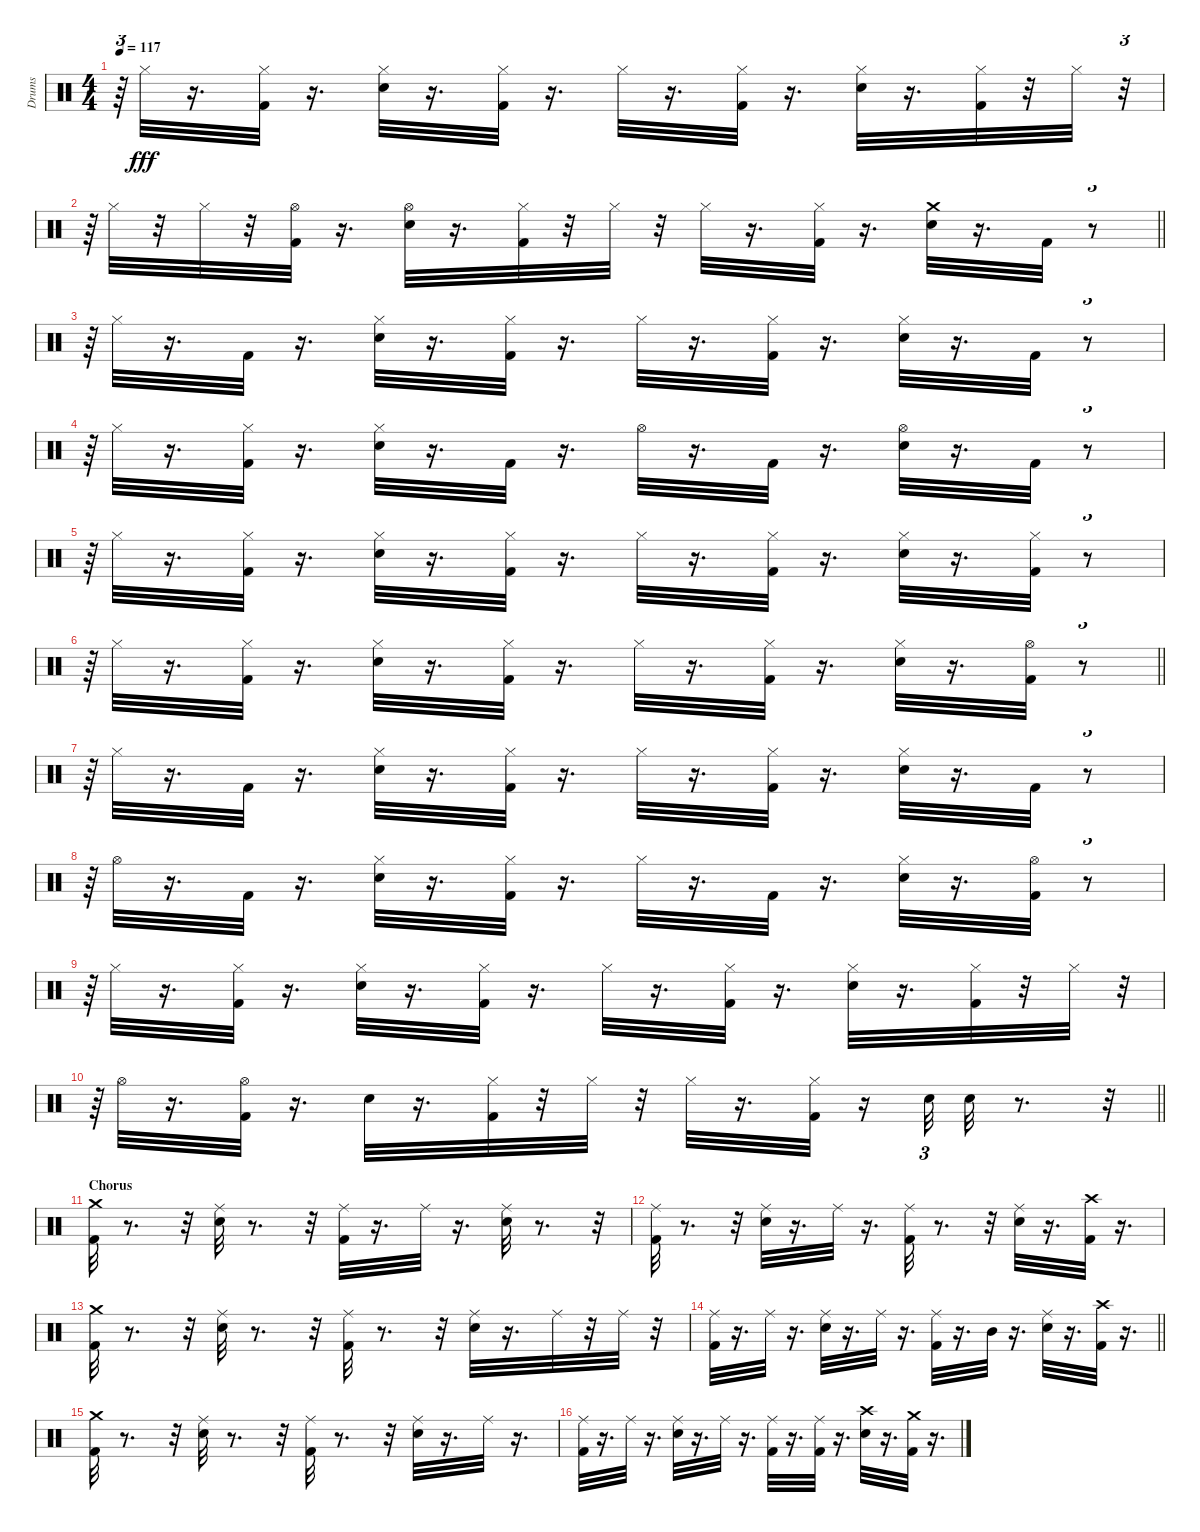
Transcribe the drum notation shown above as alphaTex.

\track ("Drums" "Drums") {instrument percussion}
\staff {score}
\articulation defaults
\ts (4 4)
\tempo 117
\clef neutral
\ks c
r.64{tu (3 2) dy fff} "Hi-Hat (closed)".32 r.16{d} ("Hi-Hat (closed)" "Kick (hit) 2").32 r.16{d} ("Electric Snare (hit)" "Hi-Hat (closed)").32 r.16{d} ("Kick (hit) 2" "Hi-Hat (closed)").32 r.16{d} "Hi-Hat (closed)".32 r.16{d} ("Kick (hit) 2" "Hi-Hat (closed)").32 r.16{d} ("Electric Snare (hit)" "Hi-Hat (closed)").32 r.16{d} ("Kick (hit) 2" "Hi-Hat (closed)").32 r.32 "Hi-Hat (closed)".32 r.32{tu (3 2)} |
\barLineRight lightlight
r.64{tu (3 2)} "Hi-Hat (closed)".32 r.32 "Hi-Hat (closed)".32 r.32 ("Kick (hit) 2" "Hi-Hat (open)").32 r.16{d} ("Electric Snare (hit)" "Hi-Hat (open)").32 r.16{d} ("Kick (hit) 2" "Hi-Hat (closed)").32 r.32 "Hi-Hat (closed)".32 r.32 "Hi-Hat (closed)".32 r.16{d} ("Hi-Hat (closed)" "Kick (hit) 2").32 r.16{d} ("Electric Snare (hit)" "Crash medium (hit)").32 r.16{d} "Kick (hit) 2".32 r.8{tu (3 2)} |
r.64{tu (3 2)} "Hi-Hat (closed)".32 r.16{d} "Kick (hit) 2".32 r.16{d} ("Electric Snare (hit)" "Hi-Hat (closed)").32 r.16{d} ("Hi-Hat (closed)" "Kick (hit) 2").32 r.16{d} "Hi-Hat (closed)".32 r.16{d} ("Kick (hit) 2" "Hi-Hat (closed)").32 r.16{d} ("Electric Snare (hit)" "Hi-Hat (closed)").32 r.16{d} "Kick (hit) 2".32 r.8{tu (3 2)} |
r.64{tu (3 2)} "Hi-Hat (closed)".32 r.16{d} ("Kick (hit) 2" "Hi-Hat (closed)").32 r.16{d} ("Electric Snare (hit)" "Hi-Hat (closed)").32 r.16{d} "Kick (hit) 2".32 r.16{d} "Hi-Hat (open)".32 r.16{d} "Kick (hit) 2".32 r.16{d} ("Electric Snare (hit)" "Hi-Hat (open)").32 r.16{d} "Kick (hit) 2".32 r.8{tu (3 2)} |
r.64{tu (3 2)} "Hi-Hat (closed)".32 r.16{d} ("Kick (hit) 2" "Hi-Hat (closed)").32 r.16{d} ("Electric Snare (hit)" "Hi-Hat (closed)").32 r.16{d} ("Kick (hit) 2" "Hi-Hat (closed)").32 r.16{d} "Hi-Hat (closed)".32 r.16{d} ("Hi-Hat (closed)" "Kick (hit) 2").32 r.16{d} ("Electric Snare (hit)" "Hi-Hat (closed)").32 r.16{d} ("Hi-Hat (closed)" "Kick (hit) 2").32 r.8{tu (3 2)} |
\barLineRight lightlight
r.64{tu (3 2)} "Hi-Hat (closed)".32 r.16{d} ("Kick (hit) 2" "Hi-Hat (closed)").32 r.16{d} ("Electric Snare (hit)" "Hi-Hat (closed)").32 r.16{d} ("Kick (hit) 2" "Hi-Hat (closed)").32 r.16{d} "Hi-Hat (closed)".32 r.16{d} ("Kick (hit) 2" "Hi-Hat (closed)").32 r.16{d} ("Electric Snare (hit)" "Hi-Hat (closed)").32 r.16{d} ("Kick (hit) 2" "Hi-Hat (open)").32 r.8{tu (3 2)} |
r.64{tu (3 2)} "Hi-Hat (closed)".32 r.16{d} "Kick (hit) 2".32 r.16{d} ("Electric Snare (hit)" "Hi-Hat (closed)").32 r.16{d} ("Kick (hit) 2" "Hi-Hat (closed)").32 r.16{d} "Hi-Hat (closed)".32 r.16{d} ("Kick (hit) 2" "Hi-Hat (closed)").32 r.16{d} ("Electric Snare (hit)" "Hi-Hat (closed)").32 r.16{d} "Kick (hit) 2".32 r.8{tu (3 2)} |
r.64{tu (3 2)} "Hi-Hat (open)".32 r.16{d} "Kick (hit) 2".32 r.16{d} ("Electric Snare (hit)" "Hi-Hat (closed)").32 r.16{d} ("Kick (hit) 2" "Hi-Hat (closed)").32 r.16{d} "Hi-Hat (closed)".32 r.16{d} "Kick (hit) 2".32 r.16{d} ("Electric Snare (hit)" "Hi-Hat (closed)").32 r.16{d} ("Kick (hit) 2" "Hi-Hat (open)").32 r.8{tu (3 2)} |
r.64{tu (3 2)} "Hi-Hat (closed)".32 r.16{d} ("Hi-Hat (closed)" "Kick (hit) 2").32 r.16{d} ("Electric Snare (hit)" "Hi-Hat (closed)").32 r.16{d} ("Kick (hit) 2" "Hi-Hat (closed)").32 r.16{d} "Hi-Hat (closed)".32 r.16{d} ("Kick (hit) 2" "Hi-Hat (closed)").32 r.16{d} ("Electric Snare (hit)" "Hi-Hat (closed)").32 r.16{d} ("Kick (hit) 2" "Hi-Hat (closed)").32 r.32 "Hi-Hat (closed)".32 r.32{tu (3 2)} |
\barLineRight lightlight
r.64{tu (3 2)} "Hi-Hat (open)".32 r.16{d} ("Hi-Hat (open)" "Kick (hit) 2").32 r.16{d} "Electric Snare (hit)".32 r.16{d} ("Kick (hit) 2" "Hi-Hat (closed)").32 r.32 "Hi-Hat (closed)".32 r.32 "Hi-Hat (closed)".32 r.16{d} ("Kick (hit) 2" "Hi-Hat (closed)").32 r.16 "Electric Snare (hit)".32{tu (3 2)} "Electric Snare (hit)".32 r.8{d} r.32 |
\section ("" "Chorus")
("Kick (hit) 2" "Crash medium (hit)").32 r.8{d} r.32 ("Electric Snare (hit)" "Ride (middle)").32 r.8{d} r.32 ("Kick (hit) 2" "Ride (middle)").32 r.16{d} "Ride (middle)".32 r.16{d} ("Electric Snare (hit)" "Ride (middle)").32 r.8{d} r.32 |
("Kick (hit) 2" "Ride (middle)").32 r.8{d} r.32 ("Ride (middle)" "Electric Snare (hit)").32 r.16{d} "Ride (middle)".32 r.16{d} ("Kick (hit) 2" "Ride (middle)").32 r.8{d} r.32 ("Ride (middle)" "Electric Snare (hit)").32 r.16{d} ("Kick (hit) 2" "Crash high (hit)").32 r.16{d} |
("Kick (hit) 2" "Crash medium (hit)").32 r.8{d} r.32 ("Ride (middle)" "Electric Snare (hit)").32 r.8{d} r.32 ("Kick (hit) 2" "Ride (middle)").32 r.8{d} r.32 ("Electric Snare (hit)" "Ride (middle)").32 r.16{d} "Ride (middle)".32 r.32 "Ride (middle)".32 r.32 |
\barLineRight lightlight
("Kick (hit) 2" "Ride (middle)").32 r.16{d} "Ride (middle)".32 r.16{d} ("Electric Snare (hit)" "Ride (middle)").32 r.16{d} "Ride (middle)".32 r.16{d} ("Kick (hit) 2" "Ride (middle)").32 r.16{d} "Mid Tom (hit)".32 r.16{d} ("Electric Snare (hit)" "Ride (middle)").32 r.16{d} ("Crash high (hit)" "Kick (hit) 2").32 r.16{d} |
("Kick (hit) 2" "Crash medium (hit)").32 r.8{d} r.32 ("Electric Snare (hit)" "Ride (middle)").32 r.8{d} r.32 ("Ride (middle)" "Kick (hit) 2").32 r.8{d} r.32 ("Ride (middle)" "Electric Snare (hit)").32 r.16{d} "Ride (middle)".32 r.16{d} |
("Kick (hit) 2" "Ride (middle)").32 r.16{d} "Ride (middle)".32 r.16{d} ("Ride (middle)" "Electric Snare (hit)").32 r.16{d} "Ride (middle)".32 r.16{d} ("Kick (hit) 2" "Ride (middle)").32 r.16{d} ("Kick (hit) 2" "Ride (middle)").32 r.16{d} ("Crash high (hit)" "Electric Snare (hit)").32 r.16{d} ("Crash medium (hit)" "Kick (hit) 2").32 r.16{d}
